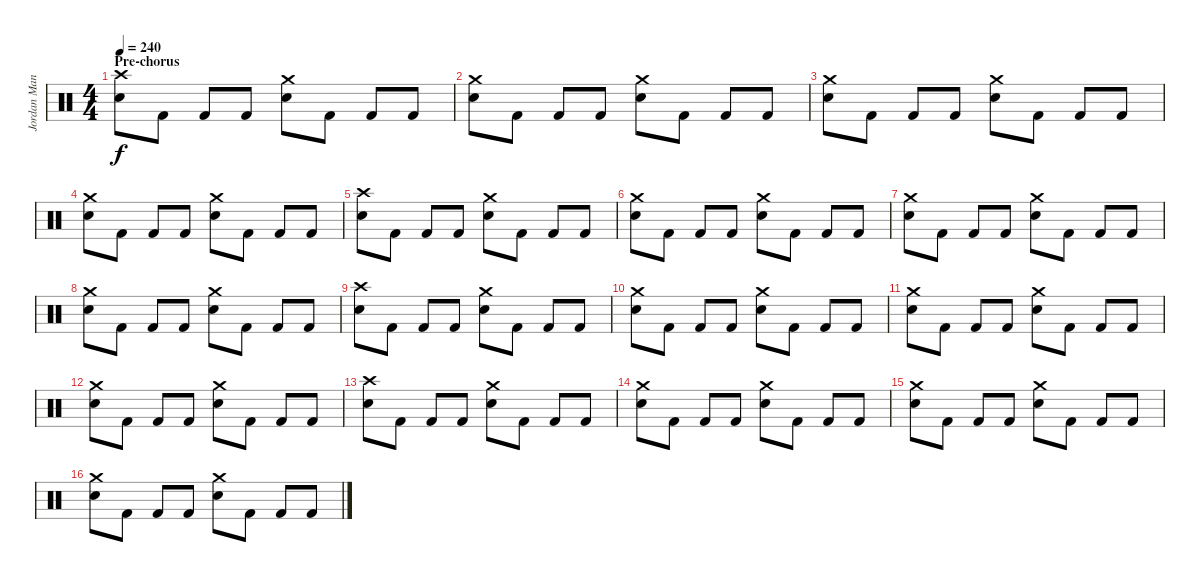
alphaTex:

\track ("Jordan Mancino" "Jordan Man") {instrument percussion}
\staff {score}
\articulation defaults
\ts (4 4)
\section ("" "Pre-chorus")
\tempo 240
\clef neutral
\ks c
("Crash high (hit)" "Electric Snare (hit)").8{dy f} "Kick (hit) 2".8 "Kick (hit) 2".8 "Kick (hit) 2".8 ("Crash medium (hit)" "Electric Snare (hit)").8 "Kick (hit) 2".8 "Kick (hit) 2".8 "Kick (hit) 2".8 |
("Crash medium (hit)" "Electric Snare (hit)").8 "Kick (hit) 2".8 "Kick (hit) 2".8 "Kick (hit) 2".8 ("Crash medium (hit)" "Electric Snare (hit)").8 "Kick (hit) 2".8 "Kick (hit) 2".8 "Kick (hit) 2".8 |
("Crash medium (hit)" "Electric Snare (hit)").8 "Kick (hit) 2".8 "Kick (hit) 2".8 "Kick (hit) 2".8 ("Crash medium (hit)" "Electric Snare (hit)").8 "Kick (hit) 2".8 "Kick (hit) 2".8 "Kick (hit) 2".8 |
("Crash medium (hit)" "Electric Snare (hit)").8 "Kick (hit) 2".8 "Kick (hit) 2".8 "Kick (hit) 2".8 ("Crash medium (hit)" "Electric Snare (hit)").8 "Kick (hit) 2".8 "Kick (hit) 2".8 "Kick (hit) 2".8 |
("Crash high (hit)" "Electric Snare (hit)").8 "Kick (hit) 2".8 "Kick (hit) 2".8 "Kick (hit) 2".8 ("Crash medium (hit)" "Electric Snare (hit)").8 "Kick (hit) 2".8 "Kick (hit) 2".8 "Kick (hit) 2".8 |
("Crash medium (hit)" "Electric Snare (hit)").8 "Kick (hit) 2".8 "Kick (hit) 2".8 "Kick (hit) 2".8 ("Crash medium (hit)" "Electric Snare (hit)").8 "Kick (hit) 2".8 "Kick (hit) 2".8 "Kick (hit) 2".8 |
("Crash medium (hit)" "Electric Snare (hit)").8 "Kick (hit) 2".8 "Kick (hit) 2".8 "Kick (hit) 2".8 ("Crash medium (hit)" "Electric Snare (hit)").8 "Kick (hit) 2".8 "Kick (hit) 2".8 "Kick (hit) 2".8 |
("Crash medium (hit)" "Electric Snare (hit)").8 "Kick (hit) 2".8 "Kick (hit) 2".8 "Kick (hit) 2".8 ("Crash medium (hit)" "Electric Snare (hit)").8 "Kick (hit) 2".8 "Kick (hit) 2".8 "Kick (hit) 2".8 |
("Crash high (hit)" "Electric Snare (hit)").8 "Kick (hit) 2".8 "Kick (hit) 2".8 "Kick (hit) 2".8 ("Crash medium (hit)" "Electric Snare (hit)").8 "Kick (hit) 2".8 "Kick (hit) 2".8 "Kick (hit) 2".8 |
("Crash medium (hit)" "Electric Snare (hit)").8 "Kick (hit) 2".8 "Kick (hit) 2".8 "Kick (hit) 2".8 ("Crash medium (hit)" "Electric Snare (hit)").8 "Kick (hit) 2".8 "Kick (hit) 2".8 "Kick (hit) 2".8 |
("Crash medium (hit)" "Electric Snare (hit)").8 "Kick (hit) 2".8 "Kick (hit) 2".8 "Kick (hit) 2".8 ("Crash medium (hit)" "Electric Snare (hit)").8 "Kick (hit) 2".8 "Kick (hit) 2".8 "Kick (hit) 2".8 |
("Crash medium (hit)" "Electric Snare (hit)").8 "Kick (hit) 2".8 "Kick (hit) 2".8 "Kick (hit) 2".8 ("Crash medium (hit)" "Electric Snare (hit)").8 "Kick (hit) 2".8 "Kick (hit) 2".8 "Kick (hit) 2".8 |
("Crash high (hit)" "Electric Snare (hit)").8 "Kick (hit) 2".8 "Kick (hit) 2".8 "Kick (hit) 2".8 ("Crash medium (hit)" "Electric Snare (hit)").8 "Kick (hit) 2".8 "Kick (hit) 2".8 "Kick (hit) 2".8 |
("Crash medium (hit)" "Electric Snare (hit)").8 "Kick (hit) 2".8 "Kick (hit) 2".8 "Kick (hit) 2".8 ("Crash medium (hit)" "Electric Snare (hit)").8 "Kick (hit) 2".8 "Kick (hit) 2".8 "Kick (hit) 2".8 |
("Crash medium (hit)" "Electric Snare (hit)").8 "Kick (hit) 2".8 "Kick (hit) 2".8 "Kick (hit) 2".8 ("Crash medium (hit)" "Electric Snare (hit)").8 "Kick (hit) 2".8 "Kick (hit) 2".8 "Kick (hit) 2".8 |
("Crash medium (hit)" "Electric Snare (hit)").8 "Kick (hit) 2".8 "Kick (hit) 2".8 "Kick (hit) 2".8 ("Crash medium (hit)" "Electric Snare (hit)").8 "Kick (hit) 2".8 "Kick (hit) 2".8 "Kick (hit) 2".8
